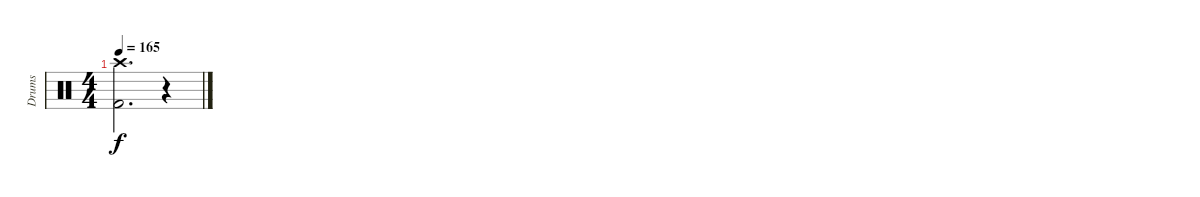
\track ("Drums" "Drums") {instrument percussion}
\staff {score}
\articulation defaults
\ts (4 4)
\tempo 165
\clef neutral
\ks c
("Crash high (hit)" "Kick (hit) 2").2{d dy f} r.4
